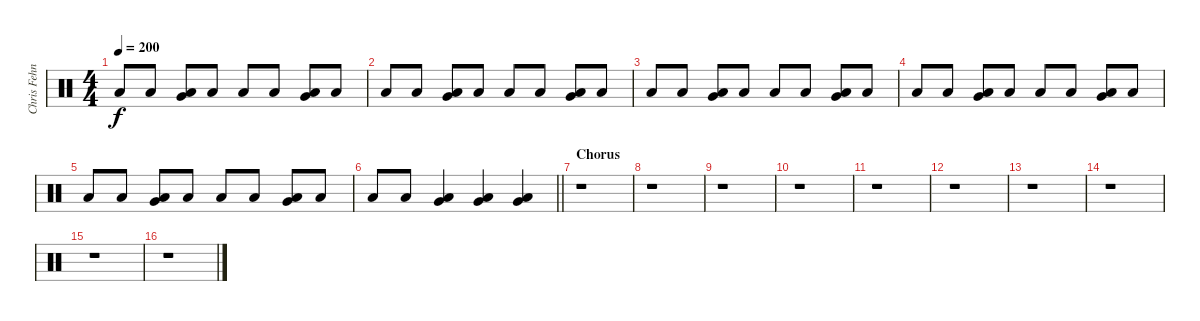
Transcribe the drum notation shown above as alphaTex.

\track ("Chris Fehn" "Chris Fehn") {instrument percussion}
\staff {score}
\articulation defaults
\ts (4 4)
\tempo 200
\clef neutral
\ks c "Low Floor Tom (hit)".8{dy f} "Low Floor Tom (hit)".8
("Very Low Tom (hit)" "Low Floor Tom (hit)").8 "Low Floor Tom (hit)".8 "Low Floor Tom (hit)".8 "Low Floor Tom (hit)".8 ("Very Low Tom (hit)" "Low Floor Tom (hit)").8 "Low Floor Tom (hit)".8 |
"Low Floor Tom (hit)".8 "Low Floor Tom (hit)".8 ("Very Low Tom (hit)" "Low Floor Tom (hit)").8 "Low Floor Tom (hit)".8 "Low Floor Tom (hit)".8 "Low Floor Tom (hit)".8 ("Very Low Tom (hit)" "Low Floor Tom (hit)").8 "Low Floor Tom (hit)".8 |
"Low Floor Tom (hit)".8 "Low Floor Tom (hit)".8 ("Very Low Tom (hit)" "Low Floor Tom (hit)").8 "Low Floor Tom (hit)".8 "Low Floor Tom (hit)".8 "Low Floor Tom (hit)".8 ("Very Low Tom (hit)" "Low Floor Tom (hit)").8 "Low Floor Tom (hit)".8 |
"Low Floor Tom (hit)".8 "Low Floor Tom (hit)".8 ("Very Low Tom (hit)" "Low Floor Tom (hit)").8 "Low Floor Tom (hit)".8 "Low Floor Tom (hit)".8 "Low Floor Tom (hit)".8 ("Very Low Tom (hit)" "Low Floor Tom (hit)").8 "Low Floor Tom (hit)".8 |
"Low Floor Tom (hit)".8 "Low Floor Tom (hit)".8 ("Very Low Tom (hit)" "Low Floor Tom (hit)").8 "Low Floor Tom (hit)".8 "Low Floor Tom (hit)".8 "Low Floor Tom (hit)".8 ("Very Low Tom (hit)" "Low Floor Tom (hit)").8 "Low Floor Tom (hit)".8 |
\barLineRight lightlight "Low Floor Tom (hit)".8 "Low Floor Tom (hit)".8
("Very Low Tom (hit)" "Low Floor Tom (hit)").4 ("Very Low Tom (hit)" "Low Floor Tom (hit)").4 ("Very Low Tom (hit)" "Low Floor Tom (hit)").4 |
\section ("" "Chorus")
r.1 |
r.1 |
r.1 |
r.1 |
r.1 |
r.1 |
r.1 |
r.1 |
r.1 |
r.1
